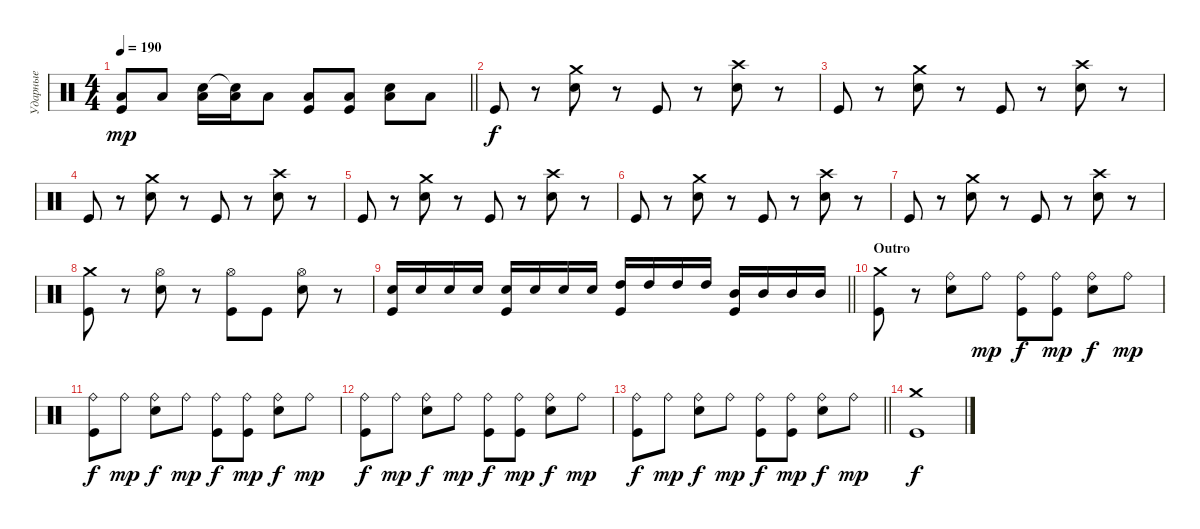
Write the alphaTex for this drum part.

\track ("Ударные" "Ударные") {instrument percussion}
\staff {score}
\articulation defaults
\ts (4 4)
\tempo 190
\clef neutral
\barLineRight lightlight
\ks c
("Low Tom (hit)" "Kick (hit)").8{dy mp} "Low Tom (hit)".8 ("Low Tom (hit)" "Electric Snare (hit)").16 ("Low Tom (hit)" "Snare (hit)"{t}).16 "Low Tom (hit)".8 ("Low Tom (hit)" "Kick (hit)").8 ("Low Tom (hit)" "Kick (hit)").8 ("Low Tom (hit)" "Electric Snare (hit)").8 "Low Tom (hit)".8 |
\section ("" " ")
"Kick (hit)".8{dy f} r.8 ("Crash medium (hit)" "Electric Snare (hit)").8 r.8 "Kick (hit)".8 r.8 ("Crash high (hit)" "Electric Snare (hit)").8 r.8 |
"Kick (hit)".8 r.8 ("Crash medium (hit)" "Electric Snare (hit)").8 r.8 "Kick (hit)".8 r.8 ("Crash high (hit)" "Electric Snare (hit)").8 r.8 |
"Kick (hit)".8 r.8 ("Crash medium (hit)" "Electric Snare (hit)").8 r.8 "Kick (hit)".8 r.8 ("Crash high (hit)" "Electric Snare (hit)").8 r.8 |
"Kick (hit)".8 r.8 ("Crash medium (hit)" "Electric Snare (hit)").8 r.8 "Kick (hit)".8 r.8 ("Crash high (hit)" "Electric Snare (hit)").8 r.8 |
"Kick (hit)".8 r.8 ("Crash medium (hit)" "Electric Snare (hit)").8 r.8 "Kick (hit)".8 r.8 ("Crash high (hit)" "Electric Snare (hit)").8 r.8 |
"Kick (hit)".8 r.8 ("Crash medium (hit)" "Electric Snare (hit)").8 r.8 "Kick (hit)".8 r.8 ("Crash high (hit)" "Electric Snare (hit)").8 r.8 |
("Crash medium (hit)" "Kick (hit)").8 r.8 ("Hi-Hat (open)" "Electric Snare (hit)").8 r.8 ("Hi-Hat (open)" "Kick (hit)").8 "Kick (hit)".8 ("Hi-Hat (open)" "Electric Snare (hit)").8 r.8 |
\barLineRight lightlight
("Electric Snare (hit)" "Kick (hit)").16 "Electric Snare (hit)".16 "Electric Snare (hit)".16 "Electric Snare (hit)".16 ("Electric Snare (hit)" "Kick (hit)").16 "Electric Snare (hit)".16 "Electric Snare (hit)".16 "Electric Snare (hit)".16 ("High Tom (hit)" "Kick (hit)").16 "High Tom (hit)".16 "High Tom (hit)".16 "High Tom (hit)".16 ("Mid Tom (hit)" "Kick (hit)").16 "Mid Tom (hit)".16 "Mid Tom (hit)".16 "Mid Tom (hit)".16 |
\section ("" "Outro")
("Crash medium (hit)" "Kick (hit)").8 r.8 ("Ride (bell)" "Electric Snare (hit)").8 "Ride (bell)".8{dy mp} ("Ride (bell)" "Kick (hit)").8{dy f} ("Ride (bell)" "Kick (hit)").8{dy mp} ("Ride (bell)" "Electric Snare (hit)").8{dy f} "Ride (bell)".8{dy mp} |
("Ride (bell)" "Kick (hit)").8{dy f} "Ride (bell)".8{dy mp} ("Ride (bell)" "Electric Snare (hit)").8{dy f} "Ride (bell)".8{dy mp} ("Ride (bell)" "Kick (hit)").8{dy f} ("Ride (bell)" "Kick (hit)").8{dy mp} ("Ride (bell)" "Electric Snare (hit)").8{dy f} "Ride (bell)".8{dy mp} |
("Ride (bell)" "Kick (hit)").8{dy f} "Ride (bell)".8{dy mp} ("Ride (bell)" "Electric Snare (hit)").8{dy f} "Ride (bell)".8{dy mp} ("Ride (bell)" "Kick (hit)").8{dy f} ("Ride (bell)" "Kick (hit)").8{dy mp} ("Ride (bell)" "Electric Snare (hit)").8{dy f} "Ride (bell)".8{dy mp} |
\barLineRight lightlight
("Ride (bell)" "Kick (hit)").8{dy f} "Ride (bell)".8{dy mp} ("Ride (bell)" "Electric Snare (hit)").8{dy f} "Ride (bell)".8{dy mp} ("Ride (bell)" "Kick (hit)").8{dy f} ("Ride (bell)" "Kick (hit)").8{dy mp} ("Ride (bell)" "Electric Snare (hit)").8{dy f} "Ride (bell)".8{dy mp} |
("Crash medium (hit)" "Kick (hit)").1{dy f}
